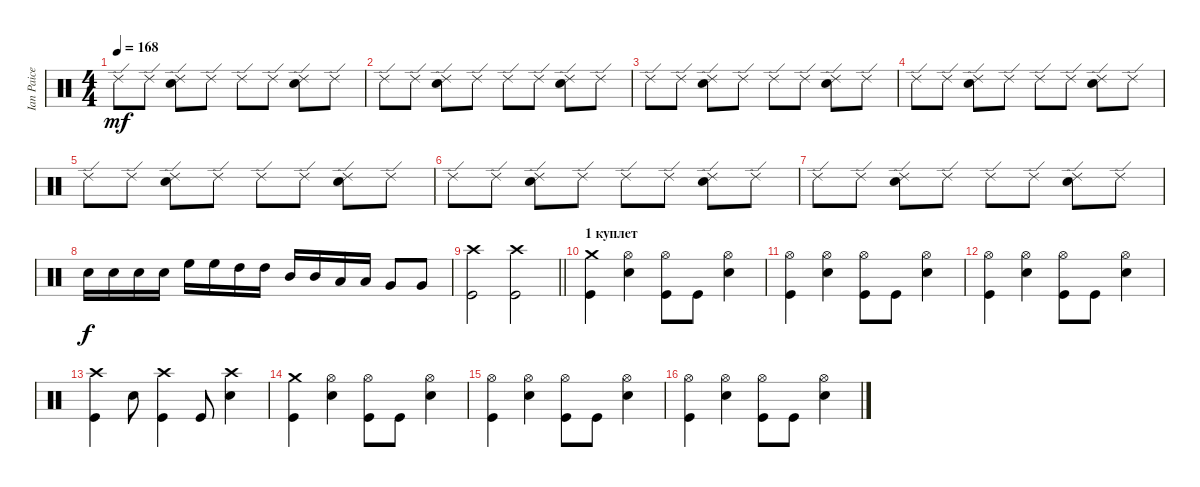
\track ("Ian Paice" "Ian Paice") {instrument percussion}
\staff {score}
\articulation defaults
\ts (4 4)
\tempo 168
\clef neutral
\ks c "Ride (edge) 2".8{dy mf} "Ride (edge) 2".8
("Ride (edge) 2" "Electric Snare (hit)").8 "Ride (edge) 2".8 "Ride (edge) 2".8 "Ride (edge) 2".8 ("Ride (edge) 2" "Electric Snare (hit)").8 "Ride (edge) 2".8 |
"Ride (edge) 2".8 "Ride (edge) 2".8 ("Ride (edge) 2" "Electric Snare (hit)").8 "Ride (edge) 2".8 "Ride (edge) 2".8 "Ride (edge) 2".8 ("Ride (edge) 2" "Electric Snare (hit)").8 "Ride (edge) 2".8 |
"Ride (edge) 2".8 "Ride (edge) 2".8 ("Ride (edge) 2" "Electric Snare (hit)").8 "Ride (edge) 2".8 "Ride (edge) 2".8 "Ride (edge) 2".8 ("Ride (edge) 2" "Electric Snare (hit)").8 "Ride (edge) 2".8 |
"Ride (edge) 2".8 "Ride (edge) 2".8 ("Ride (edge) 2" "Electric Snare (hit)").8 "Ride (edge) 2".8 "Ride (edge) 2".8 "Ride (edge) 2".8 ("Ride (edge) 2" "Electric Snare (hit)").8 "Ride (edge) 2".8 |
"Ride (edge) 2".8 "Ride (edge) 2".8 ("Ride (edge) 2" "Electric Snare (hit)").8 "Ride (edge) 2".8 "Ride (edge) 2".8 "Ride (edge) 2".8 ("Ride (edge) 2" "Electric Snare (hit)").8 "Ride (edge) 2".8 |
"Ride (edge) 2".8 "Ride (edge) 2".8 ("Ride (edge) 2" "Electric Snare (hit)").8 "Ride (edge) 2".8 "Ride (edge) 2".8 "Ride (edge) 2".8 ("Ride (edge) 2" "Electric Snare (hit)").8 "Ride (edge) 2".8 |
"Ride (edge) 2".8 "Ride (edge) 2".8 ("Ride (edge) 2" "Electric Snare (hit)").8 "Ride (edge) 2".8 "Ride (edge) 2".8 "Ride (edge) 2".8 ("Ride (edge) 2" "Electric Snare (hit)").8 "Ride (edge) 2".8 |
"Electric Snare (hit)".16{dy f} "Electric Snare (hit)".16 "Electric Snare (hit)".16 "Electric Snare (hit)".16 "High Floor Tom (hit)".16 "High Floor Tom (hit)".16 "High Tom (hit)".16 "High Tom (hit)".16 "Mid Tom (hit)".16 "Mid Tom (hit)".16 "Low Tom (hit)".16 "Low Tom (hit)".16 "Very Low Tom (hit)".8 "Very Low Tom (hit)".8 |
\barLineRight lightlight
("Crash high (hit)" "Kick (hit)").2 ("Crash high (hit)" "Kick (hit)").2 |
\section ("" "1 куплет")
("Kick (hit)" "Crash medium (hit)").4 ("Snare (hit) 2" "Hi-Hat (open)").4 ("Kick (hit)" "Hi-Hat (open)").8 "Kick (hit)".8 ("Hi-Hat (open)" "Snare (hit) 2").4 |
("Hi-Hat (open)" "Kick (hit)").4 ("Hi-Hat (open)" "Snare (hit) 2").4 ("Hi-Hat (open)" "Kick (hit)").8 "Kick (hit)".8 ("Snare (hit) 2" "Hi-Hat (open)").4 |
("Hi-Hat (open)" "Kick (hit)").4 ("Hi-Hat (open)" "Snare (hit) 2").4 ("Hi-Hat (open)" "Kick (hit)").8 "Kick (hit)".8 ("Snare (hit) 2" "Hi-Hat (open)").4 |
("Kick (hit)" "Crash high (hit)").4 "Snare (hit) 2".8 ("Kick (hit)" "Crash high (hit)").4 "Kick (hit)".8 ("Snare (hit) 2" "Crash high (hit)").4 |
("Kick (hit)" "Crash medium (hit)").4 ("Hi-Hat (open)" "Snare (hit) 2").4 ("Hi-Hat (open)" "Kick (hit)").8 "Kick (hit)".8 ("Hi-Hat (open)" "Snare (hit) 2").4 |
("Kick (hit)" "Hi-Hat (open)").4 ("Snare (hit) 2" "Hi-Hat (open)").4 ("Kick (hit)" "Hi-Hat (open)").8 "Kick (hit)".8 ("Hi-Hat (open)" "Snare (hit) 2").4 |
("Kick (hit)" "Hi-Hat (open)").4 ("Hi-Hat (open)" "Snare (hit) 2").4 ("Hi-Hat (open)" "Kick (hit)").8 "Kick (hit)".8 ("Hi-Hat (open)" "Snare (hit) 2").4
